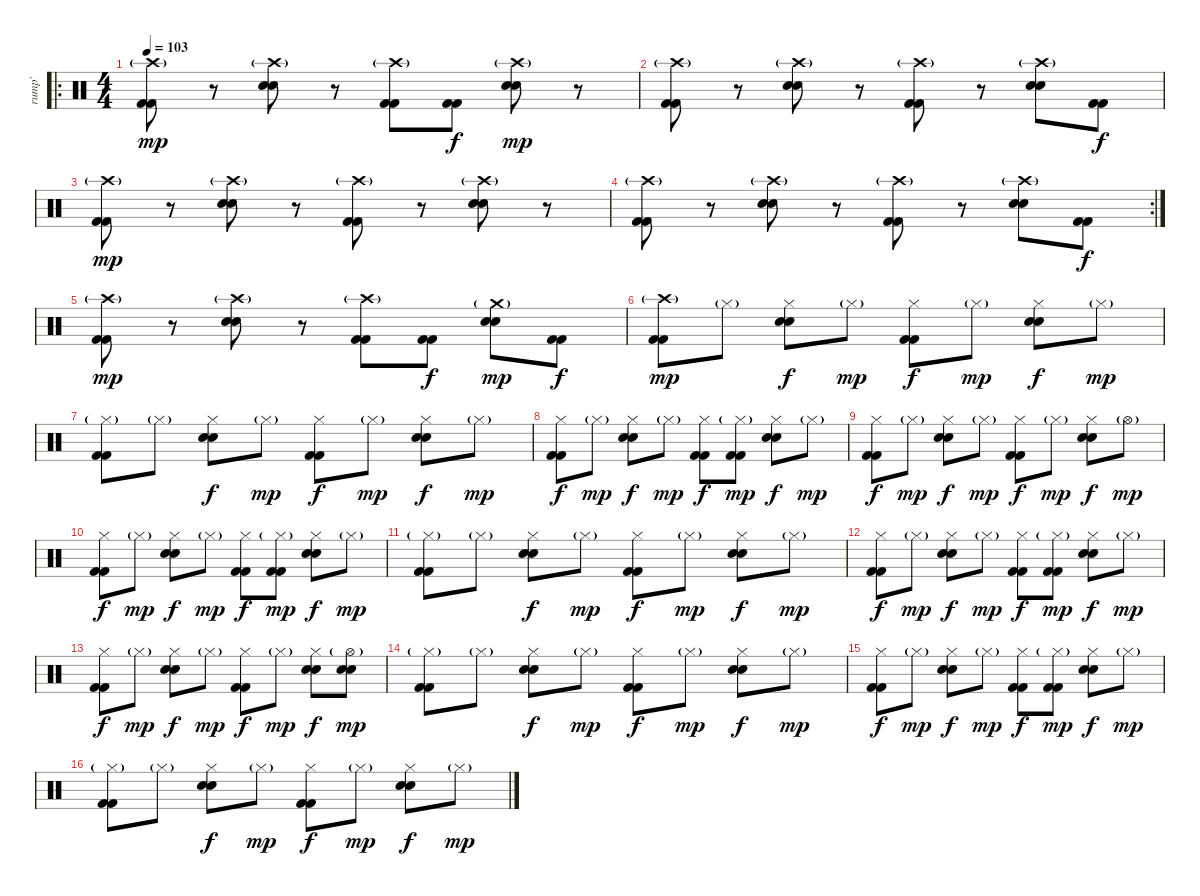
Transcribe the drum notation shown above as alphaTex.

\track ("rump'" "rump'") {instrument percussion}
\staff {score}
\articulation defaults
\ro
\ts (4 4)
\tempo 103
\clef neutral
\ks c
("Crash high (hit)"{g} "Kick (hit) 2" "Kick (hit) 2").8{dy mp} r.8 ("Crash high (hit)"{g} "Electric Snare (hit)" "Electric Snare (hit)").8 r.8 ("Crash high (hit)"{g} "Kick (hit) 2" "Kick (hit) 2").8 ("Kick (hit) 2" "Kick (hit) 2").8{dy f} ("Crash high (hit)"{g} "Electric Snare (hit)" "Electric Snare (hit)").8{dy mp} r.8 |
("Crash high (hit)"{g} "Kick (hit) 2" "Kick (hit) 2").8 r.8 ("Crash high (hit)"{g} "Electric Snare (hit)" "Electric Snare (hit)").8 r.8 ("Crash high (hit)"{g} "Kick (hit) 2" "Kick (hit) 2").8 r.8 ("Crash high (hit)"{g} "Electric Snare (hit)" "Electric Snare (hit)").8 ("Kick (hit) 2" "Kick (hit) 2").8{dy f} |
("Crash high (hit)"{g} "Kick (hit) 2" "Kick (hit) 2").8{dy mp} r.8 ("Crash high (hit)"{g} "Electric Snare (hit)" "Electric Snare (hit)").8 r.8 ("Crash high (hit)"{g} "Kick (hit) 2" "Kick (hit) 2").8 r.8 ("Crash high (hit)"{g} "Electric Snare (hit)" "Electric Snare (hit)").8 r.8 |
\rc 2
("Crash high (hit)"{g} "Kick (hit) 2" "Kick (hit) 2").8 r.8 ("Crash high (hit)"{g} "Electric Snare (hit)" "Electric Snare (hit)").8 r.8 ("Crash high (hit)"{g} "Kick (hit) 2" "Kick (hit) 2").8 r.8 ("Crash high (hit)"{g} "Electric Snare (hit)" "Electric Snare (hit)").8 ("Kick (hit) 2" "Kick (hit) 2").8{dy f} |
("Crash high (hit)"{g} "Kick (hit) 2" "Kick (hit) 2").8{dy mp} r.8 ("Crash high (hit)"{g} "Electric Snare (hit)" "Electric Snare (hit)").8 r.8 ("Crash high (hit)"{g} "Kick (hit) 2" "Kick (hit) 2").8 ("Kick (hit) 2" "Kick (hit) 2").8{dy f} ("Crash medium (hit)"{g} "Electric Snare (hit)" "Electric Snare (hit)").8{dy mp} ("Kick (hit) 2" "Kick (hit) 2").8{dy f} |
("Crash high (hit)"{g} "Kick (hit) 2" "Kick (hit) 2").8{dy mp} "Hi-Hat (closed)"{g}.8 ("Hi-Hat (closed)" "Electric Snare (hit)" "Electric Snare (hit)").8{dy f} "Hi-Hat (closed)"{g}.8{dy mp} ("Hi-Hat (closed)" "Kick (hit) 2" "Kick (hit) 2").8{dy f} "Hi-Hat (closed)"{g}.8{dy mp} ("Hi-Hat (closed)" "Electric Snare (hit)" "Electric Snare (hit)").8{dy f} "Hi-Hat (closed)"{g}.8{dy mp} |
("Hi-Hat (closed)"{g} "Kick (hit) 2" "Kick (hit) 2").8 "Hi-Hat (closed)"{g}.8 ("Hi-Hat (closed)" "Electric Snare (hit)" "Electric Snare (hit)").8{dy f} "Hi-Hat (closed)"{g}.8{dy mp} ("Hi-Hat (closed)" "Kick (hit) 2" "Kick (hit) 2").8{dy f} "Hi-Hat (closed)"{g}.8{dy mp} ("Hi-Hat (closed)" "Electric Snare (hit)" "Electric Snare (hit)").8{dy f} "Hi-Hat (closed)"{g}.8{dy mp} |
("Hi-Hat (closed)" "Kick (hit) 2" "Kick (hit) 2").8{dy f} "Hi-Hat (closed)"{g}.8{dy mp} ("Hi-Hat (closed)" "Electric Snare (hit)" "Electric Snare (hit)").8{dy f} "Hi-Hat (closed)"{g}.8{dy mp} ("Hi-Hat (closed)" "Kick (hit) 2" "Kick (hit) 2").8{dy f} ("Hi-Hat (closed)"{g} "Kick (hit) 2" "Kick (hit) 2").8{dy mp} ("Hi-Hat (closed)" "Electric Snare (hit)" "Electric Snare (hit)").8{dy f} "Hi-Hat (closed)"{g}.8{dy mp} |
("Hi-Hat (closed)" "Kick (hit) 2" "Kick (hit) 2").8{dy f} "Hi-Hat (closed)"{g}.8{dy mp} ("Hi-Hat (closed)" "Electric Snare (hit)" "Electric Snare (hit)").8{dy f} "Hi-Hat (closed)"{g}.8{dy mp} ("Hi-Hat (closed)" "Kick (hit) 2" "Kick (hit) 2").8{dy f} "Hi-Hat (closed)"{g}.8{dy mp} ("Hi-Hat (closed)" "Electric Snare (hit)" "Electric Snare (hit)").8{dy f} "Hi-Hat (open)"{g}.8{dy mp} |
("Hi-Hat (closed)" "Kick (hit) 2" "Kick (hit) 2").8{dy f} "Hi-Hat (closed)"{g}.8{dy mp} ("Hi-Hat (closed)" "Electric Snare (hit)" "Electric Snare (hit)").8{dy f} "Hi-Hat (closed)"{g}.8{dy mp} ("Hi-Hat (closed)" "Kick (hit) 2" "Kick (hit) 2").8{dy f} ("Hi-Hat (closed)"{g} "Kick (hit) 2" "Kick (hit) 2").8{dy mp} ("Hi-Hat (closed)" "Electric Snare (hit)" "Electric Snare (hit)").8{dy f} "Hi-Hat (closed)"{g}.8{dy mp} |
("Hi-Hat (closed)"{g} "Kick (hit) 2" "Kick (hit) 2").8 "Hi-Hat (closed)"{g}.8 ("Hi-Hat (closed)" "Electric Snare (hit)" "Electric Snare (hit)").8{dy f} "Hi-Hat (closed)"{g}.8{dy mp} ("Hi-Hat (closed)" "Kick (hit) 2" "Kick (hit) 2").8{dy f} "Hi-Hat (closed)"{g}.8{dy mp} ("Hi-Hat (closed)" "Electric Snare (hit)" "Electric Snare (hit)").8{dy f} "Hi-Hat (closed)"{g}.8{dy mp} |
("Hi-Hat (closed)" "Kick (hit) 2" "Kick (hit) 2").8{dy f} "Hi-Hat (closed)"{g}.8{dy mp} ("Hi-Hat (closed)" "Electric Snare (hit)" "Electric Snare (hit)").8{dy f} "Hi-Hat (closed)"{g}.8{dy mp} ("Hi-Hat (closed)" "Kick (hit) 2" "Kick (hit) 2").8{dy f} ("Hi-Hat (closed)"{g} "Kick (hit) 2" "Kick (hit) 2").8{dy mp} ("Hi-Hat (closed)" "Electric Snare (hit)" "Electric Snare (hit)").8{dy f} "Hi-Hat (closed)"{g}.8{dy mp} |
("Hi-Hat (closed)" "Kick (hit) 2" "Kick (hit) 2").8{dy f} "Hi-Hat (closed)"{g}.8{dy mp} ("Hi-Hat (closed)" "Electric Snare (hit)" "Electric Snare (hit)").8{dy f} "Hi-Hat (closed)"{g}.8{dy mp} ("Hi-Hat (closed)" "Kick (hit) 2" "Kick (hit) 2").8{dy f} "Hi-Hat (closed)"{g}.8{dy mp} ("Hi-Hat (closed)" "Electric Snare (hit)" "Electric Snare (hit)").8{dy f} ("Hi-Hat (open)"{g} "Electric Snare (hit)" "Electric Snare (hit)").8{dy mp} |
("Hi-Hat (closed)"{g} "Kick (hit) 2" "Kick (hit) 2").8 "Hi-Hat (closed)"{g}.8 ("Hi-Hat (closed)" "Electric Snare (hit)" "Electric Snare (hit)").8{dy f} "Hi-Hat (closed)"{g}.8{dy mp} ("Hi-Hat (closed)" "Kick (hit) 2" "Kick (hit) 2").8{dy f} "Hi-Hat (closed)"{g}.8{dy mp} ("Hi-Hat (closed)" "Electric Snare (hit)" "Electric Snare (hit)").8{dy f} "Hi-Hat (closed)"{g}.8{dy mp} |
("Hi-Hat (closed)" "Kick (hit) 2" "Kick (hit) 2").8{dy f} "Hi-Hat (closed)"{g}.8{dy mp} ("Hi-Hat (closed)" "Electric Snare (hit)" "Electric Snare (hit)").8{dy f} "Hi-Hat (closed)"{g}.8{dy mp} ("Hi-Hat (closed)" "Kick (hit) 2" "Kick (hit) 2").8{dy f} ("Hi-Hat (closed)"{g} "Kick (hit) 2" "Kick (hit) 2").8{dy mp} ("Hi-Hat (closed)" "Electric Snare (hit)" "Electric Snare (hit)").8{dy f} "Hi-Hat (closed)"{g}.8{dy mp} |
("Hi-Hat (closed)"{g} "Kick (hit) 2" "Kick (hit) 2").8 "Hi-Hat (closed)"{g}.8 ("Hi-Hat (closed)" "Electric Snare (hit)" "Electric Snare (hit)").8{dy f} "Hi-Hat (closed)"{g}.8{dy mp} ("Hi-Hat (closed)" "Kick (hit) 2" "Kick (hit) 2").8{dy f} "Hi-Hat (closed)"{g}.8{dy mp} ("Hi-Hat (closed)" "Electric Snare (hit)" "Electric Snare (hit)").8{dy f} "Hi-Hat (closed)"{g}.8{dy mp}
